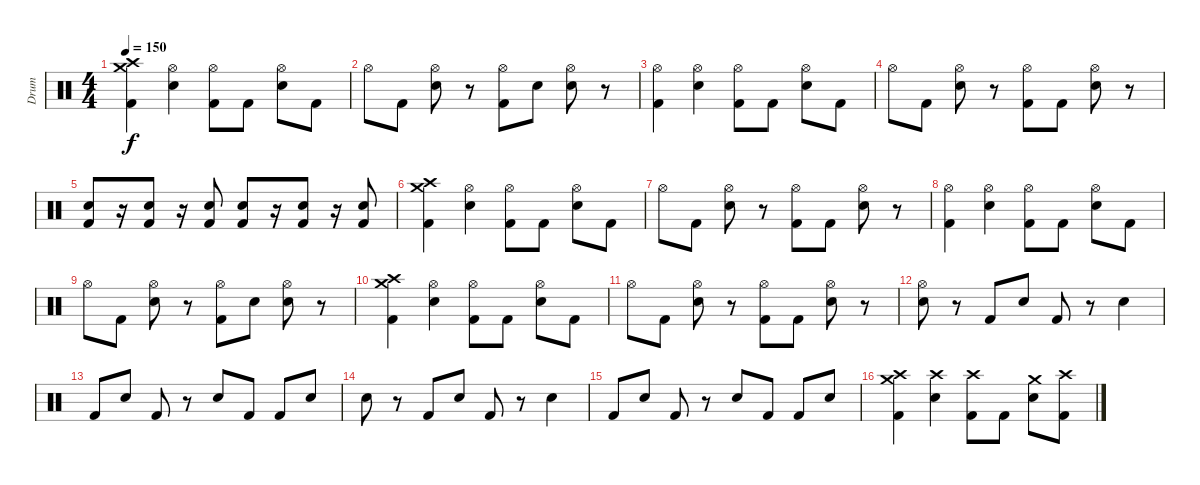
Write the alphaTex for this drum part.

\track ("Drum" "Drum") {instrument percussion}
\staff {score}
\articulation defaults
\ts (4 4)
\tempo 150
\clef neutral
\ks c
("Crash high (hit)" "Crash medium (hit)" "Kick (hit) 2").4{dy f} ("Hi-Hat (open)" "Electric Snare (hit)").4 ("Hi-Hat (open)" "Kick (hit) 2").8 "Kick (hit) 2".8 ("Hi-Hat (open)" "Electric Snare (hit)").8 "Kick (hit) 2".8 |
"Hi-Hat (open)".8 "Kick (hit) 2".8 ("Hi-Hat (open)" "Electric Snare (hit)").8 r.8 ("Hi-Hat (open)" "Kick (hit) 2").8 "Electric Snare (hit)".8 ("Hi-Hat (open)" "Electric Snare (hit)").8 r.8 |
("Hi-Hat (open)" "Kick (hit) 2").4 ("Hi-Hat (open)" "Electric Snare (hit)").4 ("Hi-Hat (open)" "Kick (hit) 2").8 "Kick (hit) 2".8 ("Hi-Hat (open)" "Electric Snare (hit)").8 "Kick (hit) 2".8 |
"Hi-Hat (open)".8 "Kick (hit) 2".8 ("Hi-Hat (open)" "Electric Snare (hit)").8 r.8 ("Hi-Hat (open)" "Kick (hit) 2").8 "Kick (hit) 2".8 ("Hi-Hat (open)" "Electric Snare (hit)").8 r.8 |
("Electric Snare (hit)" "Kick (hit) 2").8 r.16 ("Electric Snare (hit)" "Kick (hit) 2").8 r.16 ("Electric Snare (hit)" "Kick (hit) 2").8 ("Electric Snare (hit)" "Kick (hit) 2").8 r.16 ("Electric Snare (hit)" "Kick (hit) 2").8 r.16 ("Electric Snare (hit)" "Kick (hit) 2").8 |
("Crash high (hit)" "Crash medium (hit)" "Kick (hit) 2").4 ("Hi-Hat (open)" "Electric Snare (hit)").4 ("Hi-Hat (open)" "Kick (hit) 2").8 "Kick (hit) 2".8 ("Hi-Hat (open)" "Electric Snare (hit)").8 "Kick (hit) 2".8 |
"Hi-Hat (open)".8 "Kick (hit) 2".8 ("Hi-Hat (open)" "Electric Snare (hit)").8 r.8 ("Hi-Hat (open)" "Kick (hit) 2").8 "Kick (hit) 2".8 ("Hi-Hat (open)" "Electric Snare (hit)").8 r.8 |
("Hi-Hat (open)" "Kick (hit) 2").4 ("Hi-Hat (open)" "Electric Snare (hit)").4 ("Hi-Hat (open)" "Kick (hit) 2").8 "Kick (hit) 2".8 ("Hi-Hat (open)" "Electric Snare (hit)").8 "Kick (hit) 2".8 |
"Hi-Hat (open)".8 "Kick (hit) 2".8 ("Hi-Hat (open)" "Electric Snare (hit)").8 r.8 ("Hi-Hat (open)" "Kick (hit) 2").8 "Electric Snare (hit)".8 ("Hi-Hat (open)" "Electric Snare (hit)").8 r.8 |
("Crash high (hit)" "Crash medium (hit)" "Kick (hit) 2").4 ("Hi-Hat (open)" "Electric Snare (hit)").4 ("Hi-Hat (open)" "Kick (hit) 2").8 "Kick (hit) 2".8 ("Hi-Hat (open)" "Electric Snare (hit)").8 "Kick (hit) 2".8 |
"Hi-Hat (open)".8 "Kick (hit) 2".8 ("Hi-Hat (open)" "Electric Snare (hit)").8 r.8 ("Hi-Hat (open)" "Kick (hit) 2").8 "Kick (hit) 2".8 ("Hi-Hat (open)" "Electric Snare (hit)").8 r.8 |
("Hi-Hat (open)" "Electric Snare (hit)").8 r.8 "Kick (hit) 2".8 "Electric Snare (hit)".8 "Kick (hit) 2".8 r.8 "Electric Snare (hit)".4 |
"Kick (hit) 2".8 "Electric Snare (hit)".8 "Kick (hit) 2".8 r.8 "Electric Snare (hit)".8 "Kick (hit) 2".8 "Kick (hit) 2".8 "Electric Snare (hit)".8 |
"Electric Snare (hit)".8 r.8 "Kick (hit) 2".8 "Electric Snare (hit)".8 "Kick (hit) 2".8 r.8 "Electric Snare (hit)".4 |
"Kick (hit) 2".8 "Electric Snare (hit)".8 "Kick (hit) 2".8 r.8 "Electric Snare (hit)".8 "Kick (hit) 2".8 "Kick (hit) 2".8 "Electric Snare (hit)".8 |
("Crash high (hit)" "Crash medium (hit)" "Kick (hit) 2").4 ("Crash high (hit)" "Electric Snare (hit)").4 ("Crash high (hit)" "Kick (hit) 2").8 "Kick (hit) 2".8 ("Crash medium (hit)" "Electric Snare (hit)").8 ("Crash high (hit)" "Kick (hit) 2").8
